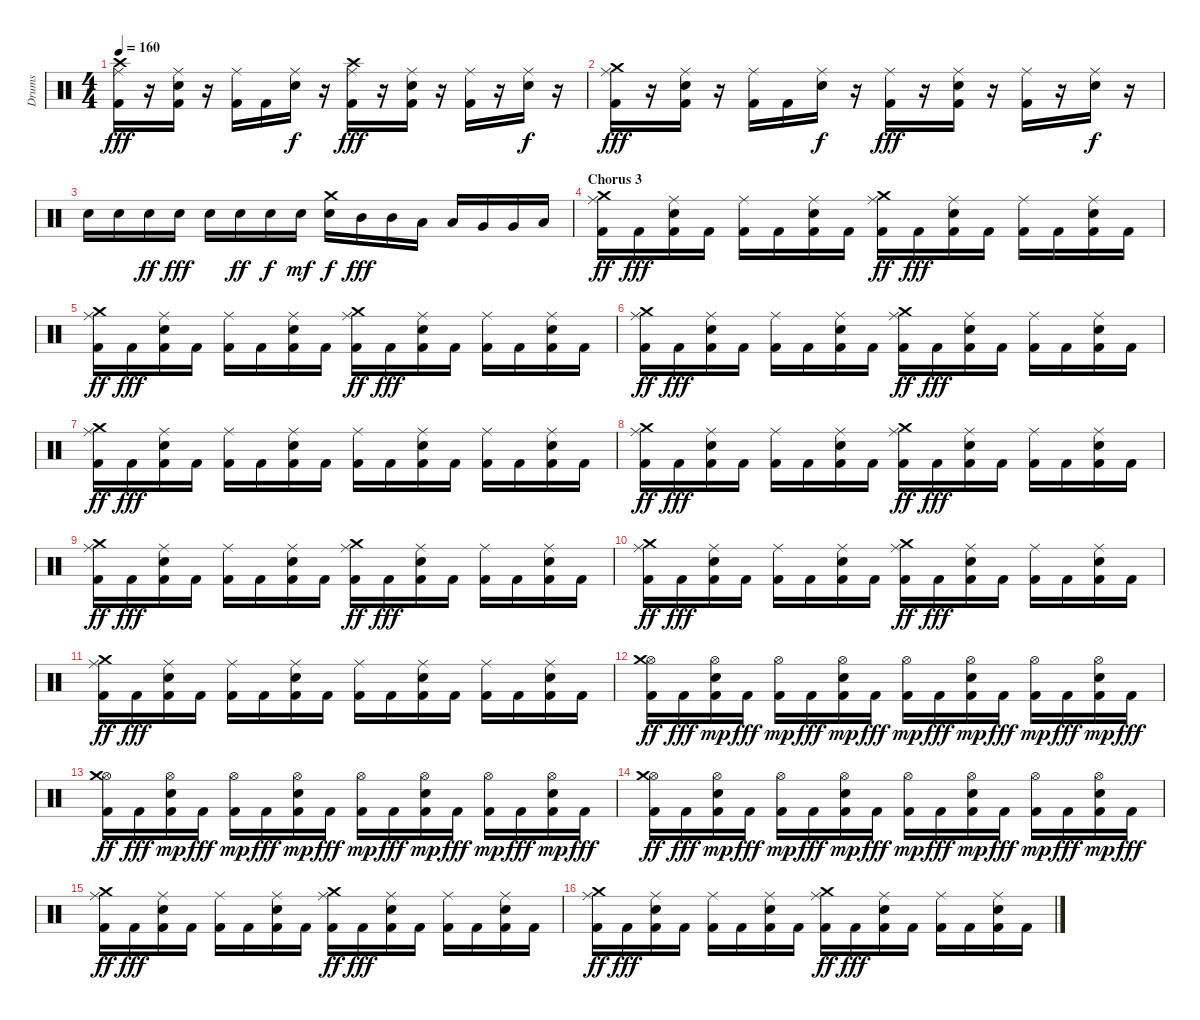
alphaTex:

\track ("Drums" "Drums") {instrument percussion}
\staff {score}
\articulation defaults
\ts (4 4)
\tempo 160
\clef neutral
\ks c
("Kick (hit) 2" "Ride (middle)" "Crash high (hit)").16{dy fff} r.16 ("Kick (hit) 2" "Ride (middle)" "Snare (hit) 2").16 r.16 ("Kick (hit) 2" "Ride (middle)").16 "Kick (hit) 2".16 ("Ride (middle)" "Snare (hit) 2").16{dy f} r.16 ("Kick (hit) 2" "Ride (middle)" "Crash high (hit)").16{dy fff} r.16 ("Kick (hit) 2" "Ride (middle)" "Snare (hit) 2").16 r.16 ("Kick (hit) 2" "Ride (middle)").16 r.16 ("Ride (middle)" "Snare (hit) 2").16{dy f} r.16 |
("Kick (hit) 2" "Ride (middle)" "Crash medium (hit)").16{dy fff} r.16 ("Kick (hit) 2" "Ride (middle)" "Snare (hit) 2").16 r.16 ("Kick (hit) 2" "Ride (middle)").16 "Kick (hit) 2".16 ("Ride (middle)" "Snare (hit) 2").16{dy f} r.16 ("Kick (hit) 2" "Ride (middle)").16{dy fff} r.16 ("Kick (hit) 2" "Ride (middle)" "Snare (hit) 2").16 r.16 ("Kick (hit) 2" "Ride (middle)").16 r.16 ("Ride (middle)" "Snare (hit) 2").16{dy f} r.16 |
"Snare (hit) 2".16 "Snare (hit) 2".16 "Snare (hit) 2".16{dy ff} "Snare (hit) 2".16{dy fff} "Snare (hit) 2".16 "Snare (hit) 2".16{dy ff} "Snare (hit) 2".16{dy f} "Snare (hit) 2".16{dy mf} ("Snare (hit) 2" "Crash medium (hit)").16{dy f} "Mid Tom (hit)".16{dy fff} "Mid Tom (hit)".16 "Low Tom (hit)".16 "Low Tom (hit)".16 "Very Low Tom (hit)".16 "Very Low Tom (hit)".16 "Low Floor Tom (hit)".16 |
\section ("" "Chorus 3")
("Kick (hit) 2" "Ride (middle)" "Crash medium (hit)").16{dy ff} "Kick (hit) 2".16{dy fff} ("Kick (hit) 2" "Ride (middle)" "Snare (hit) 2").16 "Kick (hit) 2".16 ("Kick (hit) 2" "Ride (middle)").16 "Kick (hit) 2".16 ("Kick (hit) 2" "Ride (middle)" "Snare (hit) 2").16 "Kick (hit) 2".16 ("Kick (hit) 2" "Ride (middle)" "Crash medium (hit)").16{dy ff} "Kick (hit) 2".16{dy fff} ("Kick (hit) 2" "Ride (middle)" "Snare (hit) 2").16 "Kick (hit) 2".16 ("Kick (hit) 2" "Ride (middle)").16 "Kick (hit) 2".16 ("Kick (hit) 2" "Ride (middle)" "Snare (hit) 2").16 "Kick (hit) 2".16 |
("Kick (hit) 2" "Ride (middle)" "Crash medium (hit)").16{dy ff} "Kick (hit) 2".16{dy fff} ("Kick (hit) 2" "Ride (middle)" "Snare (hit) 2").16 "Kick (hit) 2".16 ("Kick (hit) 2" "Ride (middle)").16 "Kick (hit) 2".16 ("Kick (hit) 2" "Ride (middle)" "Snare (hit) 2").16 "Kick (hit) 2".16 ("Kick (hit) 2" "Ride (middle)" "Crash medium (hit)").16{dy ff} "Kick (hit) 2".16{dy fff} ("Kick (hit) 2" "Ride (middle)" "Snare (hit) 2").16 "Kick (hit) 2".16 ("Kick (hit) 2" "Ride (middle)").16 "Kick (hit) 2".16 ("Kick (hit) 2" "Ride (middle)" "Snare (hit) 2").16 "Kick (hit) 2".16 |
("Kick (hit) 2" "Ride (middle)" "Crash medium (hit)").16{dy ff} "Kick (hit) 2".16{dy fff} ("Kick (hit) 2" "Ride (middle)" "Snare (hit) 2").16 "Kick (hit) 2".16 ("Kick (hit) 2" "Ride (middle)").16 "Kick (hit) 2".16 ("Kick (hit) 2" "Ride (middle)" "Snare (hit) 2").16 "Kick (hit) 2".16 ("Kick (hit) 2" "Ride (middle)" "Crash medium (hit)").16{dy ff} "Kick (hit) 2".16{dy fff} ("Kick (hit) 2" "Ride (middle)" "Snare (hit) 2").16 "Kick (hit) 2".16 ("Kick (hit) 2" "Ride (middle)").16 "Kick (hit) 2".16 ("Kick (hit) 2" "Ride (middle)" "Snare (hit) 2").16 "Kick (hit) 2".16 |
("Kick (hit) 2" "Ride (middle)" "Crash medium (hit)").16{dy ff} "Kick (hit) 2".16{dy fff} ("Kick (hit) 2" "Ride (middle)" "Snare (hit) 2").16 "Kick (hit) 2".16 ("Kick (hit) 2" "Ride (middle)").16 "Kick (hit) 2".16 ("Kick (hit) 2" "Ride (middle)" "Snare (hit) 2").16 "Kick (hit) 2".16 ("Kick (hit) 2" "Ride (middle)").16 "Kick (hit) 2".16 ("Kick (hit) 2" "Ride (middle)" "Snare (hit) 2").16 "Kick (hit) 2".16 ("Kick (hit) 2" "Ride (middle)").16 "Kick (hit) 2".16 ("Kick (hit) 2" "Ride (middle)" "Snare (hit) 2").16 "Kick (hit) 2".16 |
("Kick (hit) 2" "Ride (middle)" "Crash medium (hit)").16{dy ff} "Kick (hit) 2".16{dy fff} ("Kick (hit) 2" "Ride (middle)" "Snare (hit) 2").16 "Kick (hit) 2".16 ("Kick (hit) 2" "Ride (middle)").16 "Kick (hit) 2".16 ("Kick (hit) 2" "Ride (middle)" "Snare (hit) 2").16 "Kick (hit) 2".16 ("Kick (hit) 2" "Ride (middle)" "Crash medium (hit)").16{dy ff} "Kick (hit) 2".16{dy fff} ("Kick (hit) 2" "Ride (middle)" "Snare (hit) 2").16 "Kick (hit) 2".16 ("Kick (hit) 2" "Ride (middle)").16 "Kick (hit) 2".16 ("Kick (hit) 2" "Ride (middle)" "Snare (hit) 2").16 "Kick (hit) 2".16 |
("Kick (hit) 2" "Ride (middle)" "Crash medium (hit)").16{dy ff} "Kick (hit) 2".16{dy fff} ("Kick (hit) 2" "Ride (middle)" "Snare (hit) 2").16 "Kick (hit) 2".16 ("Kick (hit) 2" "Ride (middle)").16 "Kick (hit) 2".16 ("Kick (hit) 2" "Ride (middle)" "Snare (hit) 2").16 "Kick (hit) 2".16 ("Kick (hit) 2" "Ride (middle)" "Crash medium (hit)").16{dy ff} "Kick (hit) 2".16{dy fff} ("Kick (hit) 2" "Ride (middle)" "Snare (hit) 2").16 "Kick (hit) 2".16 ("Kick (hit) 2" "Ride (middle)").16 "Kick (hit) 2".16 ("Kick (hit) 2" "Ride (middle)" "Snare (hit) 2").16 "Kick (hit) 2".16 |
("Kick (hit) 2" "Ride (middle)" "Crash medium (hit)").16{dy ff} "Kick (hit) 2".16{dy fff} ("Kick (hit) 2" "Ride (middle)" "Snare (hit) 2").16 "Kick (hit) 2".16 ("Kick (hit) 2" "Ride (middle)").16 "Kick (hit) 2".16 ("Kick (hit) 2" "Ride (middle)" "Snare (hit) 2").16 "Kick (hit) 2".16 ("Kick (hit) 2" "Ride (middle)" "Crash medium (hit)").16{dy ff} "Kick (hit) 2".16{dy fff} ("Kick (hit) 2" "Ride (middle)" "Snare (hit) 2").16 "Kick (hit) 2".16 ("Kick (hit) 2" "Ride (middle)").16 "Kick (hit) 2".16 ("Kick (hit) 2" "Ride (middle)" "Snare (hit) 2").16 "Kick (hit) 2".16 |
("Kick (hit) 2" "Ride (middle)" "Crash medium (hit)").16{dy ff} "Kick (hit) 2".16{dy fff} ("Kick (hit) 2" "Ride (middle)" "Snare (hit) 2").16 "Kick (hit) 2".16 ("Kick (hit) 2" "Ride (middle)").16 "Kick (hit) 2".16 ("Kick (hit) 2" "Ride (middle)" "Snare (hit) 2").16 "Kick (hit) 2".16 ("Kick (hit) 2" "Ride (middle)").16 "Kick (hit) 2".16 ("Kick (hit) 2" "Ride (middle)" "Snare (hit) 2").16 "Kick (hit) 2".16 ("Kick (hit) 2" "Ride (middle)").16 "Kick (hit) 2".16 ("Kick (hit) 2" "Ride (middle)" "Snare (hit) 2").16 "Kick (hit) 2".16 |
("Kick (hit) 2" "Hi-Hat (open)" "Crash medium (hit)").16{dy ff} "Kick (hit) 2".16{dy fff} ("Kick (hit) 2" "Hi-Hat (open)" "Snare (hit) 2").16{dy mp} "Kick (hit) 2".16{dy fff} ("Kick (hit) 2" "Hi-Hat (open)").16{dy mp} "Kick (hit) 2".16{dy fff} ("Kick (hit) 2" "Hi-Hat (open)" "Snare (hit) 2").16{dy mp} "Kick (hit) 2".16{dy fff} ("Kick (hit) 2" "Hi-Hat (open)").16{dy mp} "Kick (hit) 2".16{dy fff} ("Kick (hit) 2" "Hi-Hat (open)" "Snare (hit) 2").16{dy mp} "Kick (hit) 2".16{dy fff} ("Kick (hit) 2" "Hi-Hat (open)").16{dy mp} "Kick (hit) 2".16{dy fff} ("Kick (hit) 2" "Hi-Hat (open)" "Snare (hit) 2").16{dy mp} "Kick (hit) 2".16{dy fff} |
("Kick (hit) 2" "Hi-Hat (open)" "Crash medium (hit)").16{dy ff} "Kick (hit) 2".16{dy fff} ("Kick (hit) 2" "Hi-Hat (open)" "Snare (hit) 2").16{dy mp} "Kick (hit) 2".16{dy fff} ("Kick (hit) 2" "Hi-Hat (open)").16{dy mp} "Kick (hit) 2".16{dy fff} ("Kick (hit) 2" "Hi-Hat (open)" "Snare (hit) 2").16{dy mp} "Kick (hit) 2".16{dy fff} ("Kick (hit) 2" "Hi-Hat (open)").16{dy mp} "Kick (hit) 2".16{dy fff} ("Kick (hit) 2" "Hi-Hat (open)" "Snare (hit) 2").16{dy mp} "Kick (hit) 2".16{dy fff} ("Kick (hit) 2" "Hi-Hat (open)").16{dy mp} "Kick (hit) 2".16{dy fff} ("Kick (hit) 2" "Hi-Hat (open)" "Snare (hit) 2").16{dy mp} "Kick (hit) 2".16{dy fff} |
("Kick (hit) 2" "Hi-Hat (open)" "Crash medium (hit)").16{dy ff} "Kick (hit) 2".16{dy fff} ("Kick (hit) 2" "Hi-Hat (open)" "Snare (hit) 2").16{dy mp} "Kick (hit) 2".16{dy fff} ("Kick (hit) 2" "Hi-Hat (open)").16{dy mp} "Kick (hit) 2".16{dy fff} ("Kick (hit) 2" "Hi-Hat (open)" "Snare (hit) 2").16{dy mp} "Kick (hit) 2".16{dy fff} ("Kick (hit) 2" "Hi-Hat (open)").16{dy mp} "Kick (hit) 2".16{dy fff} ("Kick (hit) 2" "Hi-Hat (open)" "Snare (hit) 2").16{dy mp} "Kick (hit) 2".16{dy fff} ("Kick (hit) 2" "Hi-Hat (open)").16{dy mp} "Kick (hit) 2".16{dy fff} ("Kick (hit) 2" "Hi-Hat (open)" "Snare (hit) 2").16{dy mp} "Kick (hit) 2".16{dy fff} |
("Kick (hit) 2" "Ride (middle)" "Crash medium (hit)").16{dy ff} "Kick (hit) 2".16{dy fff} ("Kick (hit) 2" "Ride (middle)" "Snare (hit) 2").16 "Kick (hit) 2".16 ("Kick (hit) 2" "Ride (middle)").16 "Kick (hit) 2".16 ("Kick (hit) 2" "Ride (middle)" "Snare (hit) 2").16 "Kick (hit) 2".16 ("Kick (hit) 2" "Ride (middle)" "Crash medium (hit)").16{dy ff} "Kick (hit) 2".16{dy fff} ("Kick (hit) 2" "Ride (middle)" "Snare (hit) 2").16 "Kick (hit) 2".16 ("Kick (hit) 2" "Ride (middle)").16 "Kick (hit) 2".16 ("Kick (hit) 2" "Ride (middle)" "Snare (hit) 2").16 "Kick (hit) 2".16 |
("Kick (hit) 2" "Ride (middle)" "Crash medium (hit)").16{dy ff} "Kick (hit) 2".16{dy fff} ("Kick (hit) 2" "Ride (middle)" "Snare (hit) 2").16 "Kick (hit) 2".16 ("Kick (hit) 2" "Ride (middle)").16 "Kick (hit) 2".16 ("Kick (hit) 2" "Ride (middle)" "Snare (hit) 2").16 "Kick (hit) 2".16 ("Kick (hit) 2" "Ride (middle)" "Crash medium (hit)").16{dy ff} "Kick (hit) 2".16{dy fff} ("Kick (hit) 2" "Ride (middle)" "Snare (hit) 2").16 "Kick (hit) 2".16 ("Kick (hit) 2" "Ride (middle)").16 "Kick (hit) 2".16 ("Kick (hit) 2" "Ride (middle)" "Snare (hit) 2").16 "Kick (hit) 2".16
